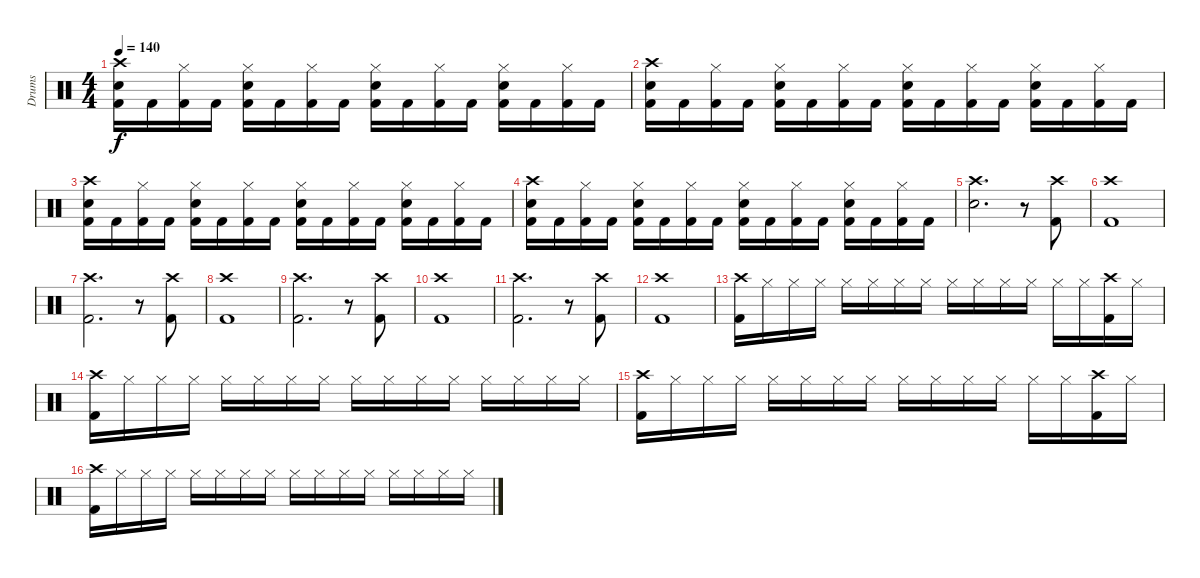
\track ("Drums" "Drums") {instrument percussion}
\staff {score}
\articulation defaults
\ts (4 4)
\tempo 140
\clef neutral
\ks c
("Crash high (hit)" "Snare (hit) 2" "Kick (hit) 2").16{dy f} "Kick (hit) 2".16 ("Hi-Hat (closed)" "Kick (hit) 2").16 "Kick (hit) 2".16 ("Hi-Hat (closed)" "Snare (hit) 2" "Kick (hit) 2").16 "Kick (hit) 2".16 ("Hi-Hat (closed)" "Kick (hit) 2").16 "Kick (hit) 2".16 ("Hi-Hat (closed)" "Snare (hit) 2" "Kick (hit) 2").16 "Kick (hit) 2".16 ("Hi-Hat (closed)" "Kick (hit) 2").16 "Kick (hit) 2".16 ("Hi-Hat (closed)" "Snare (hit) 2" "Kick (hit) 2").16 "Kick (hit) 2".16 ("Hi-Hat (closed)" "Kick (hit) 2").16 "Kick (hit) 2".16 |
("Crash high (hit)" "Snare (hit) 2" "Kick (hit) 2").16 "Kick (hit) 2".16 ("Hi-Hat (closed)" "Kick (hit) 2").16 "Kick (hit) 2".16 ("Hi-Hat (closed)" "Snare (hit) 2" "Kick (hit) 2").16 "Kick (hit) 2".16 ("Hi-Hat (closed)" "Kick (hit) 2").16 "Kick (hit) 2".16 ("Hi-Hat (closed)" "Snare (hit) 2" "Kick (hit) 2").16 "Kick (hit) 2".16 ("Hi-Hat (closed)" "Kick (hit) 2").16 "Kick (hit) 2".16 ("Hi-Hat (closed)" "Snare (hit) 2" "Kick (hit) 2").16 "Kick (hit) 2".16 ("Hi-Hat (closed)" "Kick (hit) 2").16 "Kick (hit) 2".16 |
("Crash high (hit)" "Snare (hit) 2" "Kick (hit) 2").16 "Kick (hit) 2".16 ("Hi-Hat (closed)" "Kick (hit) 2").16 "Kick (hit) 2".16 ("Hi-Hat (closed)" "Snare (hit) 2" "Kick (hit) 2").16 "Kick (hit) 2".16 ("Hi-Hat (closed)" "Kick (hit) 2").16 "Kick (hit) 2".16 ("Hi-Hat (closed)" "Snare (hit) 2" "Kick (hit) 2").16 "Kick (hit) 2".16 ("Hi-Hat (closed)" "Kick (hit) 2").16 "Kick (hit) 2".16 ("Hi-Hat (closed)" "Snare (hit) 2" "Kick (hit) 2").16 "Kick (hit) 2".16 ("Hi-Hat (closed)" "Kick (hit) 2").16 "Kick (hit) 2".16 |
("Crash high (hit)" "Snare (hit) 2" "Kick (hit) 2").16 "Kick (hit) 2".16 ("Hi-Hat (closed)" "Kick (hit) 2").16 "Kick (hit) 2".16 ("Hi-Hat (closed)" "Snare (hit) 2" "Kick (hit) 2").16 "Kick (hit) 2".16 ("Hi-Hat (closed)" "Kick (hit) 2").16 "Kick (hit) 2".16 ("Hi-Hat (closed)" "Snare (hit) 2" "Kick (hit) 2").16 "Kick (hit) 2".16 ("Hi-Hat (closed)" "Kick (hit) 2").16 "Kick (hit) 2".16 ("Hi-Hat (closed)" "Snare (hit) 2" "Kick (hit) 2").16 "Kick (hit) 2".16 ("Hi-Hat (closed)" "Kick (hit) 2").16 "Kick (hit) 2".16 |
("Crash high (hit)" "Snare (hit) 2").2{d} r.8 ("Crash high (hit)" "Kick (hit) 2").8 |
("Crash high (hit)" "Kick (hit) 2").1 |
("Crash high (hit)" "Kick (hit) 2").2{d} r.8 ("Crash high (hit)" "Kick (hit) 2").8 |
("Crash high (hit)" "Kick (hit) 2").1 |
("Crash high (hit)" "Kick (hit) 2").2{d} r.8 ("Crash high (hit)" "Kick (hit) 2").8 |
("Crash high (hit)" "Kick (hit) 2").1 |
("Crash high (hit)" "Kick (hit) 2").2{d} r.8 ("Crash high (hit)" "Kick (hit) 2").8 |
("Crash high (hit)" "Kick (hit) 2").1 |
("Crash high (hit)" "Kick (hit) 2").16 "Hi-Hat (closed)".16 "Hi-Hat (closed)".16 "Hi-Hat (closed)".16 "Hi-Hat (closed)".16 "Hi-Hat (closed)".16 "Hi-Hat (closed)".16 "Hi-Hat (closed)".16 "Hi-Hat (closed)".16 "Hi-Hat (closed)".16 "Hi-Hat (closed)".16 "Hi-Hat (closed)".16 "Hi-Hat (closed)".16 "Hi-Hat (closed)".16 ("Crash high (hit)" "Kick (hit) 2").16 "Hi-Hat (closed)".16 |
("Crash high (hit)" "Kick (hit) 2").16 "Hi-Hat (closed)".16 "Hi-Hat (closed)".16 "Hi-Hat (closed)".16 "Hi-Hat (closed)".16 "Hi-Hat (closed)".16 "Hi-Hat (closed)".16 "Hi-Hat (closed)".16 "Hi-Hat (closed)".16 "Hi-Hat (closed)".16 "Hi-Hat (closed)".16 "Hi-Hat (closed)".16 "Hi-Hat (closed)".16 "Hi-Hat (closed)".16 "Hi-Hat (closed)".16 "Hi-Hat (closed)".16 |
("Crash high (hit)" "Kick (hit) 2").16 "Hi-Hat (closed)".16 "Hi-Hat (closed)".16 "Hi-Hat (closed)".16 "Hi-Hat (closed)".16 "Hi-Hat (closed)".16 "Hi-Hat (closed)".16 "Hi-Hat (closed)".16 "Hi-Hat (closed)".16 "Hi-Hat (closed)".16 "Hi-Hat (closed)".16 "Hi-Hat (closed)".16 "Hi-Hat (closed)".16 "Hi-Hat (closed)".16 ("Crash high (hit)" "Kick (hit) 2").16 "Hi-Hat (closed)".16 |
("Crash high (hit)" "Kick (hit) 2").16 "Hi-Hat (closed)".16 "Hi-Hat (closed)".16 "Hi-Hat (closed)".16 "Hi-Hat (closed)".16 "Hi-Hat (closed)".16 "Hi-Hat (closed)".16 "Hi-Hat (closed)".16 "Hi-Hat (closed)".16 "Hi-Hat (closed)".16 "Hi-Hat (closed)".16 "Hi-Hat (closed)".16 "Hi-Hat (closed)".16 "Hi-Hat (closed)".16 "Hi-Hat (closed)".16 "Hi-Hat (closed)".16
